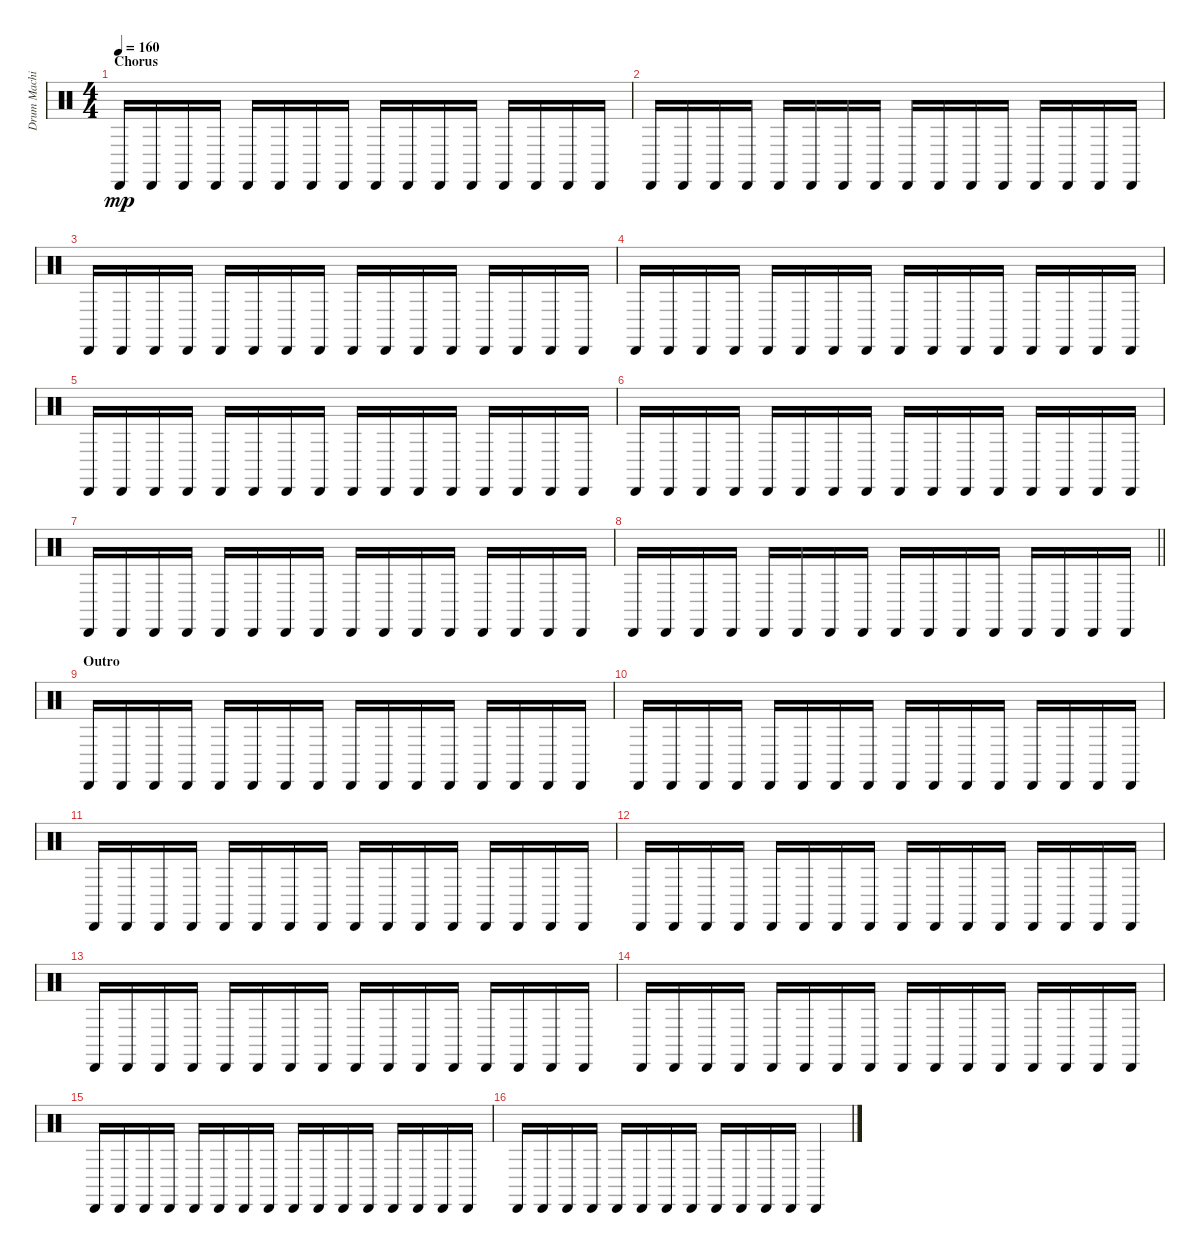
\track ("Drum Machine" "Drum Machi") {instrument percussion}
\staff {score}
\articulation defaults
\ts (4 4)
\section ("" "Chorus")
\tempo 160
\clef neutral
\ks c "Cabasa (hit)".16{dy mp} "Cabasa (hit)".16 "Cabasa (hit)".16 "Cabasa (hit)".16 "Cabasa (hit)".16 "Cabasa (hit)".16 "Cabasa (hit)".16 "Cabasa (hit)".16 "Cabasa (hit)".16 "Cabasa (hit)".16 "Cabasa (hit)".16 "Cabasa (hit)".16 "Cabasa (hit)".16 "Cabasa (hit)".16 "Cabasa (hit)".16 "Cabasa (hit)".16
|
"Cabasa (hit)".16 "Cabasa (hit)".16 "Cabasa (hit)".16 "Cabasa (hit)".16 "Cabasa (hit)".16 "Cabasa (hit)".16 "Cabasa (hit)".16 "Cabasa (hit)".16 "Cabasa (hit)".16 "Cabasa (hit)".16 "Cabasa (hit)".16 "Cabasa (hit)".16 "Cabasa (hit)".16 "Cabasa (hit)".16 "Cabasa (hit)".16 "Cabasa (hit)".16 |
"Cabasa (hit)".16 "Cabasa (hit)".16 "Cabasa (hit)".16 "Cabasa (hit)".16 "Cabasa (hit)".16 "Cabasa (hit)".16 "Cabasa (hit)".16 "Cabasa (hit)".16 "Cabasa (hit)".16 "Cabasa (hit)".16 "Cabasa (hit)".16 "Cabasa (hit)".16 "Cabasa (hit)".16 "Cabasa (hit)".16 "Cabasa (hit)".16 "Cabasa (hit)".16 |
"Cabasa (hit)".16 "Cabasa (hit)".16 "Cabasa (hit)".16 "Cabasa (hit)".16 "Cabasa (hit)".16 "Cabasa (hit)".16 "Cabasa (hit)".16 "Cabasa (hit)".16 "Cabasa (hit)".16 "Cabasa (hit)".16 "Cabasa (hit)".16 "Cabasa (hit)".16 "Cabasa (hit)".16 "Cabasa (hit)".16 "Cabasa (hit)".16 "Cabasa (hit)".16 |
"Cabasa (hit)".16 "Cabasa (hit)".16 "Cabasa (hit)".16 "Cabasa (hit)".16 "Cabasa (hit)".16 "Cabasa (hit)".16 "Cabasa (hit)".16 "Cabasa (hit)".16 "Cabasa (hit)".16 "Cabasa (hit)".16 "Cabasa (hit)".16 "Cabasa (hit)".16 "Cabasa (hit)".16 "Cabasa (hit)".16 "Cabasa (hit)".16 "Cabasa (hit)".16 |
"Cabasa (hit)".16 "Cabasa (hit)".16 "Cabasa (hit)".16 "Cabasa (hit)".16 "Cabasa (hit)".16 "Cabasa (hit)".16 "Cabasa (hit)".16 "Cabasa (hit)".16 "Cabasa (hit)".16 "Cabasa (hit)".16 "Cabasa (hit)".16 "Cabasa (hit)".16 "Cabasa (hit)".16 "Cabasa (hit)".16 "Cabasa (hit)".16 "Cabasa (hit)".16 |
"Cabasa (hit)".16 "Cabasa (hit)".16 "Cabasa (hit)".16 "Cabasa (hit)".16 "Cabasa (hit)".16 "Cabasa (hit)".16 "Cabasa (hit)".16 "Cabasa (hit)".16 "Cabasa (hit)".16 "Cabasa (hit)".16 "Cabasa (hit)".16 "Cabasa (hit)".16 "Cabasa (hit)".16 "Cabasa (hit)".16 "Cabasa (hit)".16 "Cabasa (hit)".16 |
\barLineRight lightlight "Cabasa (hit)".16 "Cabasa (hit)".16 "Cabasa (hit)".16 "Cabasa (hit)".16 "Cabasa (hit)".16 "Cabasa (hit)".16 "Cabasa (hit)".16 "Cabasa (hit)".16 "Cabasa (hit)".16 "Cabasa (hit)".16 "Cabasa (hit)".16 "Cabasa (hit)".16 "Cabasa (hit)".16 "Cabasa (hit)".16 "Cabasa (hit)".16 "Cabasa (hit)".16
|
\section ("" "Outro")
"Cabasa (hit)".16 "Cabasa (hit)".16 "Cabasa (hit)".16 "Cabasa (hit)".16 "Cabasa (hit)".16 "Cabasa (hit)".16 "Cabasa (hit)".16 "Cabasa (hit)".16 "Cabasa (hit)".16 "Cabasa (hit)".16 "Cabasa (hit)".16 "Cabasa (hit)".16 "Cabasa (hit)".16 "Cabasa (hit)".16 "Cabasa (hit)".16 "Cabasa (hit)".16 |
"Cabasa (hit)".16 "Cabasa (hit)".16 "Cabasa (hit)".16 "Cabasa (hit)".16 "Cabasa (hit)".16 "Cabasa (hit)".16 "Cabasa (hit)".16 "Cabasa (hit)".16 "Cabasa (hit)".16 "Cabasa (hit)".16 "Cabasa (hit)".16 "Cabasa (hit)".16 "Cabasa (hit)".16 "Cabasa (hit)".16 "Cabasa (hit)".16 "Cabasa (hit)".16 |
"Cabasa (hit)".16 "Cabasa (hit)".16 "Cabasa (hit)".16 "Cabasa (hit)".16 "Cabasa (hit)".16 "Cabasa (hit)".16 "Cabasa (hit)".16 "Cabasa (hit)".16 "Cabasa (hit)".16 "Cabasa (hit)".16 "Cabasa (hit)".16 "Cabasa (hit)".16 "Cabasa (hit)".16 "Cabasa (hit)".16 "Cabasa (hit)".16 "Cabasa (hit)".16 |
"Cabasa (hit)".16 "Cabasa (hit)".16 "Cabasa (hit)".16 "Cabasa (hit)".16 "Cabasa (hit)".16 "Cabasa (hit)".16 "Cabasa (hit)".16 "Cabasa (hit)".16 "Cabasa (hit)".16 "Cabasa (hit)".16 "Cabasa (hit)".16 "Cabasa (hit)".16 "Cabasa (hit)".16 "Cabasa (hit)".16 "Cabasa (hit)".16 "Cabasa (hit)".16 |
"Cabasa (hit)".16 "Cabasa (hit)".16 "Cabasa (hit)".16 "Cabasa (hit)".16 "Cabasa (hit)".16 "Cabasa (hit)".16 "Cabasa (hit)".16 "Cabasa (hit)".16 "Cabasa (hit)".16 "Cabasa (hit)".16 "Cabasa (hit)".16 "Cabasa (hit)".16 "Cabasa (hit)".16 "Cabasa (hit)".16 "Cabasa (hit)".16 "Cabasa (hit)".16 |
"Cabasa (hit)".16 "Cabasa (hit)".16 "Cabasa (hit)".16 "Cabasa (hit)".16 "Cabasa (hit)".16 "Cabasa (hit)".16 "Cabasa (hit)".16 "Cabasa (hit)".16 "Cabasa (hit)".16 "Cabasa (hit)".16 "Cabasa (hit)".16 "Cabasa (hit)".16 "Cabasa (hit)".16 "Cabasa (hit)".16 "Cabasa (hit)".16 "Cabasa (hit)".16 |
"Cabasa (hit)".16 "Cabasa (hit)".16 "Cabasa (hit)".16 "Cabasa (hit)".16 "Cabasa (hit)".16 "Cabasa (hit)".16 "Cabasa (hit)".16 "Cabasa (hit)".16 "Cabasa (hit)".16 "Cabasa (hit)".16 "Cabasa (hit)".16 "Cabasa (hit)".16 "Cabasa (hit)".16 "Cabasa (hit)".16 "Cabasa (hit)".16 "Cabasa (hit)".16 |
"Cabasa (hit)".16 "Cabasa (hit)".16 "Cabasa (hit)".16 "Cabasa (hit)".16 "Cabasa (hit)".16 "Cabasa (hit)".16 "Cabasa (hit)".16 "Cabasa (hit)".16 "Cabasa (hit)".16 "Cabasa (hit)".16 "Cabasa (hit)".16 "Cabasa (hit)".16 "Cabasa (hit)".4
